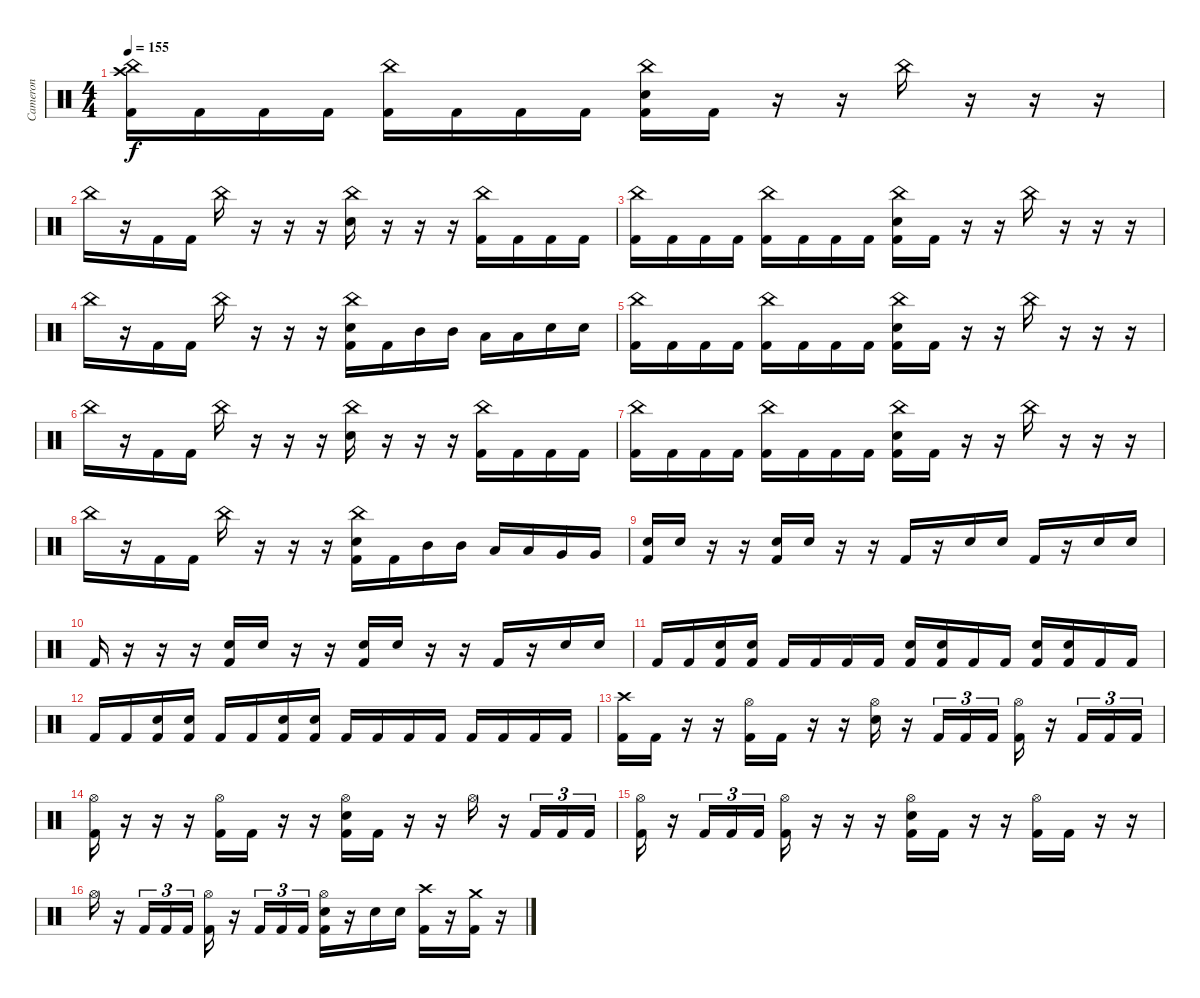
\track ("Cameron" "Cameron") {instrument percussion}
\staff {score}
\articulation defaults
\ts (4 4)
\tempo 155
\clef neutral
\ks c
("Crash high (hit)" "China (hit)" "Kick (hit) 2").16{dy f} "Kick (hit) 2".16 "Kick (hit) 2".16 "Kick (hit) 2".16 ("China (hit)" "Kick (hit) 2").16 "Kick (hit) 2".16 "Kick (hit) 2".16 "Kick (hit) 2".16 ("China (hit)" "Snare (hit) 2" "Kick (hit) 2").16 "Kick (hit) 2".16 r.16 r.16 "China (hit)".16 r.16 r.16 r.16 |
"China (hit)".16 r.16 "Kick (hit) 2".16 "Kick (hit) 2".16 "China (hit)".16 r.16 r.16 r.16 ("China (hit)" "Snare (hit) 2").16 r.16 r.16 r.16 ("China (hit)" "Kick (hit) 2").16 "Kick (hit) 2".16 "Kick (hit) 2".16 "Kick (hit) 2".16 |
("China (hit)" "Kick (hit) 2").16 "Kick (hit) 2".16 "Kick (hit) 2".16 "Kick (hit) 2".16 ("China (hit)" "Kick (hit) 2").16 "Kick (hit) 2".16 "Kick (hit) 2".16 "Kick (hit) 2".16 ("China (hit)" "Snare (hit) 2" "Kick (hit) 2").16 "Kick (hit) 2".16 r.16 r.16 "China (hit)".16 r.16 r.16 r.16 |
"China (hit)".16 r.16 "Kick (hit) 2".16 "Kick (hit) 2".16 "China (hit)".16 r.16 r.16 r.16 ("China (hit)" "Snare (hit) 2" "Kick (hit) 2").16 "Kick (hit) 2".16 "Mid Tom (hit)".16 "Mid Tom (hit)".16 "Low Tom (hit)".16 "Low Tom (hit)".16 "Snare (hit) 2".16 "Snare (hit) 2".16 |
("China (hit)" "Kick (hit) 2").16 "Kick (hit) 2".16 "Kick (hit) 2".16 "Kick (hit) 2".16 ("China (hit)" "Kick (hit) 2").16 "Kick (hit) 2".16 "Kick (hit) 2".16 "Kick (hit) 2".16 ("China (hit)" "Snare (hit) 2" "Kick (hit) 2").16 "Kick (hit) 2".16 r.16 r.16 "China (hit)".16 r.16 r.16 r.16 |
"China (hit)".16 r.16 "Kick (hit) 2".16 "Kick (hit) 2".16 "China (hit)".16 r.16 r.16 r.16 ("China (hit)" "Snare (hit) 2").16 r.16 r.16 r.16 ("China (hit)" "Kick (hit) 2").16 "Kick (hit) 2".16 "Kick (hit) 2".16 "Kick (hit) 2".16 |
("China (hit)" "Kick (hit) 2").16 "Kick (hit) 2".16 "Kick (hit) 2".16 "Kick (hit) 2".16 ("China (hit)" "Kick (hit) 2").16 "Kick (hit) 2".16 "Kick (hit) 2".16 "Kick (hit) 2".16 ("China (hit)" "Snare (hit) 2" "Kick (hit) 2").16 "Kick (hit) 2".16 r.16 r.16 "China (hit)".16 r.16 r.16 r.16 |
"China (hit)".16 r.16 "Kick (hit) 2".16 "Kick (hit) 2".16 "China (hit)".16 r.16 r.16 r.16 ("China (hit)" "Snare (hit) 2" "Kick (hit) 2").16 "Kick (hit) 2".16 "Mid Tom (hit)".16 "Mid Tom (hit)".16 "Low Tom (hit)".16 "Low Tom (hit)".16 "Very Low Tom (hit)".16 "Very Low Tom (hit)".16 |
("Snare (hit) 2" "Kick (hit) 2").16 "Snare (hit) 2".16 r.16 r.16 ("Snare (hit) 2" "Kick (hit) 2").16 "Snare (hit) 2".16 r.16 r.16 "Kick (hit) 2".16 r.16 "Snare (hit) 2".16 "Snare (hit) 2".16 "Kick (hit) 2".16 r.16 "Snare (hit) 2".16 "Snare (hit) 2".16 |
"Kick (hit) 2".16 r.16 r.16 r.16 ("Snare (hit) 2" "Kick (hit) 2").16 "Snare (hit) 2".16 r.16 r.16 ("Snare (hit) 2" "Kick (hit) 2").16 "Snare (hit) 2".16 r.16 r.16 "Kick (hit) 2".16 r.16 "Snare (hit) 2".16 "Snare (hit) 2".16 |
"Kick (hit) 2".16 "Kick (hit) 2".16 ("Snare (hit) 2" "Kick (hit) 2").16 ("Snare (hit) 2" "Kick (hit) 2").16 "Kick (hit) 2".16 "Kick (hit) 2".16 "Kick (hit) 2".16 "Kick (hit) 2".16 ("Snare (hit) 2" "Kick (hit) 2").16 ("Snare (hit) 2" "Kick (hit) 2").16 "Kick (hit) 2".16 "Kick (hit) 2".16 ("Snare (hit) 2" "Kick (hit) 2").16 ("Snare (hit) 2" "Kick (hit) 2").16 "Kick (hit) 2".16 "Kick (hit) 2".16 |
"Kick (hit) 2".16 "Kick (hit) 2".16 ("Snare (hit) 2" "Kick (hit) 2").16 ("Snare (hit) 2" "Kick (hit) 2").16 "Kick (hit) 2".16 "Kick (hit) 2".16 ("Snare (hit) 2" "Kick (hit) 2").16 ("Snare (hit) 2" "Kick (hit) 2").16 "Kick (hit) 2".16 "Kick (hit) 2".16 "Kick (hit) 2".16 "Kick (hit) 2".16 "Kick (hit) 2".16 "Kick (hit) 2".16 "Kick (hit) 2".16 "Kick (hit) 2".16 |
("Crash high (hit)" "Kick (hit) 2").16 "Kick (hit) 2".16 r.16 r.16 ("Hi-Hat (open)" "Kick (hit) 2").16 "Kick (hit) 2".16 r.16 r.16 ("Hi-Hat (open)" "Snare (hit) 2").16 r.16 "Kick (hit) 2".16{tu (3 2)} "Kick (hit) 2".16{tu (3 2)} "Kick (hit) 2".16{tu (3 2)} ("Hi-Hat (open)" "Kick (hit) 2").16 r.16 "Kick (hit) 2".16{tu (3 2)} "Kick (hit) 2".16{tu (3 2)} "Kick (hit) 2".16{tu (3 2)} |
("Hi-Hat (open)" "Kick (hit) 2").16 r.16 r.16 r.16 ("Hi-Hat (open)" "Kick (hit) 2").16 "Kick (hit) 2".16 r.16 r.16 ("Hi-Hat (open)" "Snare (hit) 2" "Kick (hit) 2").16 "Kick (hit) 2".16 r.16 r.16 "Hi-Hat (open)".16 r.16 "Kick (hit) 2".16{tu (3 2)} "Kick (hit) 2".16{tu (3 2)} "Kick (hit) 2".16{tu (3 2)} |
("Hi-Hat (open)" "Kick (hit) 2").16 r.16 "Kick (hit) 2".16{tu (3 2)} "Kick (hit) 2".16{tu (3 2)} "Kick (hit) 2".16{tu (3 2)} ("Hi-Hat (open)" "Kick (hit) 2").16 r.16 r.16 r.16 ("Hi-Hat (open)" "Snare (hit) 2" "Kick (hit) 2").16 "Kick (hit) 2".16 r.16 r.16 ("Hi-Hat (open)" "Kick (hit) 2").16 "Kick (hit) 2".16 r.16 r.16 |
"Hi-Hat (open)".16 r.16 "Kick (hit) 2".16{tu (3 2)} "Kick (hit) 2".16{tu (3 2)} "Kick (hit) 2".16{tu (3 2)} ("Hi-Hat (open)" "Kick (hit) 2").16 r.16 "Kick (hit) 2".16{tu (3 2)} "Kick (hit) 2".16{tu (3 2)} "Kick (hit) 2".16{tu (3 2)} ("Hi-Hat (open)" "Snare (hit) 2" "Kick (hit) 2").16 r.16 "Snare (hit) 2".16 "Snare (hit) 2".16 ("Crash high (hit)" "Kick (hit) 2").16 r.16 ("Crash medium (hit)" "Kick (hit) 2").16 r.16
